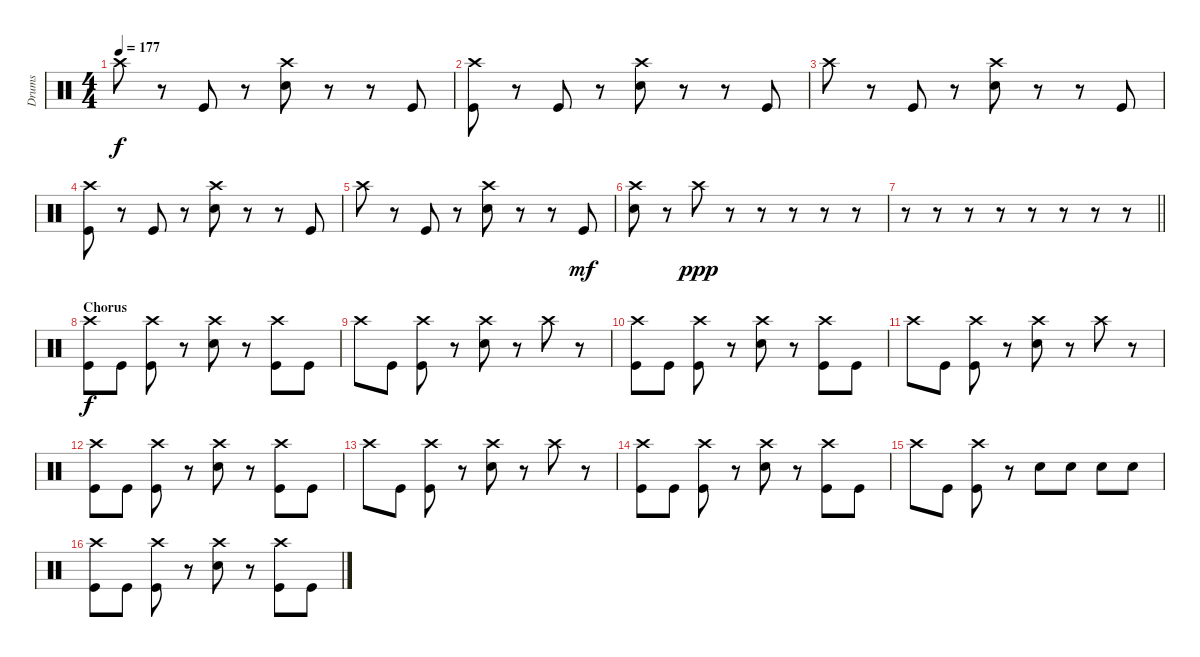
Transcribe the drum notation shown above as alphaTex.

\track ("Drums" "Drums") {instrument percussion}
\staff {score}
\articulation defaults
\ts (4 4)
\tempo 177
\clef neutral
\ks c "Crash high (hit)".8{dy f}
r.8 "Kick (hit)".8 r.8 ("Crash high (hit)" "Snare (hit) 2").8 r.8 r.8 "Kick (hit)".8 |
("Crash high (hit)" "Kick (hit)").8 r.8 "Kick (hit)".8 r.8 ("Crash high (hit)" "Snare (hit) 2").8 r.8 r.8 "Kick (hit)".8 |
"Crash high (hit)".8 r.8 "Kick (hit)".8 r.8 ("Crash high (hit)" "Snare (hit) 2").8 r.8 r.8 "Kick (hit)".8 |
("Crash high (hit)" "Kick (hit)").8 r.8 "Kick (hit)".8 r.8 ("Crash high (hit)" "Snare (hit) 2").8 r.8 r.8 "Kick (hit)".8 |
"Crash high (hit)".8 r.8 "Kick (hit)".8 r.8 ("Crash high (hit)" "Snare (hit) 2").8 r.8 r.8 "Kick (hit)".8{dy mf} |
("Crash high (hit)" "Snare (hit) 2").8 r.8 "Crash high (hit)".8{dy ppp} r.8 r.8 r.8 r.8 r.8 |
\barLineRight lightlight
r.8 r.8 r.8 r.8 r.8 r.8 r.8 r.8 |
\section ("" "Chorus")
("Crash high (hit)" "Kick (hit)").8{dy f} "Kick (hit)".8 ("Crash high (hit)" "Kick (hit)").8 r.8 ("Crash high (hit)" "Snare (hit) 2").8 r.8 ("Crash high (hit)" "Kick (hit)").8 "Kick (hit)".8 |
"Crash high (hit)".8 "Kick (hit)".8 ("Crash high (hit)" "Kick (hit)").8 r.8 ("Crash high (hit)" "Snare (hit) 2").8 r.8 "Crash high (hit)".8 r.8 |
("Crash high (hit)" "Kick (hit)").8 "Kick (hit)".8 ("Crash high (hit)" "Kick (hit)").8 r.8 ("Crash high (hit)" "Snare (hit) 2").8 r.8 ("Crash high (hit)" "Kick (hit)").8 "Kick (hit)".8 |
"Crash high (hit)".8 "Kick (hit)".8 ("Crash high (hit)" "Kick (hit)").8 r.8 ("Crash high (hit)" "Snare (hit) 2").8 r.8 "Crash high (hit)".8 r.8 |
("Crash high (hit)" "Kick (hit)").8 "Kick (hit)".8 ("Crash high (hit)" "Kick (hit)").8 r.8 ("Crash high (hit)" "Snare (hit) 2").8 r.8 ("Crash high (hit)" "Kick (hit)").8 "Kick (hit)".8 |
"Crash high (hit)".8 "Kick (hit)".8 ("Crash high (hit)" "Kick (hit)").8 r.8 ("Crash high (hit)" "Snare (hit) 2").8 r.8 "Crash high (hit)".8 r.8 |
("Crash high (hit)" "Kick (hit)").8 "Kick (hit)".8 ("Crash high (hit)" "Kick (hit)").8 r.8 ("Crash high (hit)" "Snare (hit) 2").8 r.8 ("Crash high (hit)" "Kick (hit)").8 "Kick (hit)".8 |
"Crash high (hit)".8 "Kick (hit)".8 ("Crash high (hit)" "Kick (hit)").8 r.8 "Snare (hit) 2".8 "Snare (hit) 2".8 "Snare (hit) 2".8 "Snare (hit) 2".8 |
("Crash high (hit)" "Kick (hit)").8 "Kick (hit)".8 ("Crash high (hit)" "Kick (hit)").8 r.8 ("Crash high (hit)" "Snare (hit) 2").8 r.8 ("Crash high (hit)" "Kick (hit)").8 "Kick (hit)".8
